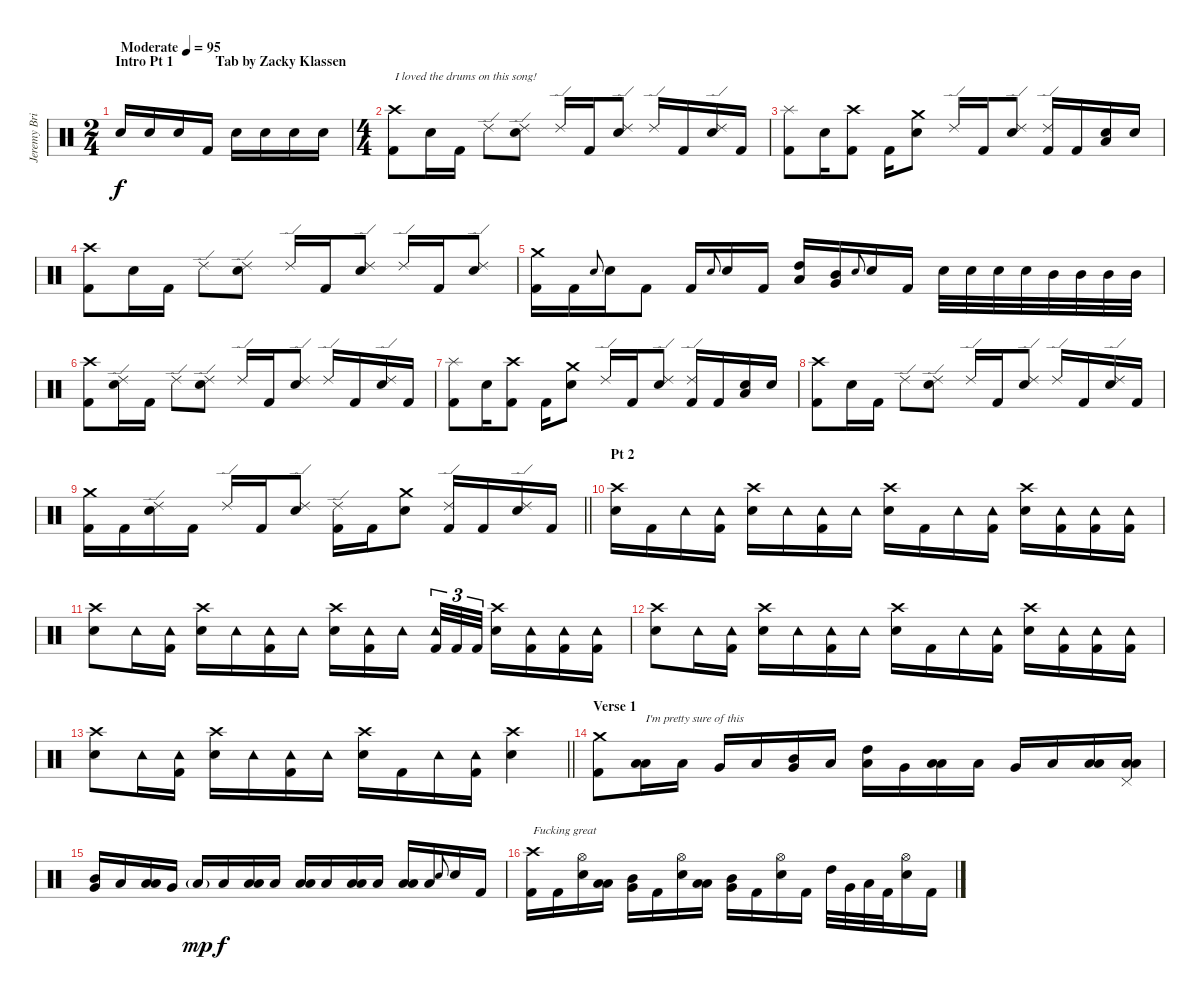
\track ("Jeremy Brian [Drums]" "Jeremy Bri") {instrument percussion}
\staff {score}
\articulation defaults
\ts (2 4)
\section ("" "Intro Pt 1            Tab by Zacky Klassen")
\tempo (95 "Moderate")
\clef neutral
\ks c "Electric Snare (hit)".16{dy f} "Electric Snare (hit)".16 "Electric Snare (hit)".16 "Kick (hit) 2".16 "Electric Snare (hit)".16 "Electric Snare (hit)".16 "Electric Snare (hit)".16 "Electric Snare (hit)".16
|
\ts (4 4)
("Crash high (hit)" "Kick (hit) 2").8{txt "I loved the drums on this song!"} "Electric Snare (hit)".16 "Kick (hit) 2".16 "Ride (edge) 2".8 ("Ride (edge) 2" "Electric Snare (hit)").8 "Ride (edge) 2".16 "Kick (hit) 2".16 ("Ride (edge) 2" "Electric Snare (hit)").8 "Ride (edge) 2".16 "Kick (hit) 2".16 ("Ride (edge) 2" "Electric Snare (hit)").16 "Kick (hit) 2".16 |
("Splash (hit)" "Kick (hit) 2").8 "Electric Snare (hit)".16 ("Crash high (hit)" "Kick (hit) 2").8 "Kick (hit) 2".16 ("Crash medium (hit)" "Electric Snare (hit)").8 "Ride (edge) 2".16 "Kick (hit) 2".16 ("Ride (edge) 2" "Electric Snare (hit)").8 ("Ride (edge) 2" "Kick (hit) 2").16 "Kick (hit) 2".16 ("Low Floor Tom (hit)" "Electric Snare (hit)").16 "Electric Snare (hit)".16 |
("Crash high (hit)" "Kick (hit) 2").8 "Electric Snare (hit)".16 "Kick (hit) 2".16 "Ride (edge) 2".8 ("Ride (edge) 2" "Electric Snare (hit)").8 "Ride (edge) 2".16 "Kick (hit) 2".16 ("Ride (edge) 2" "Electric Snare (hit)").8 "Ride (edge) 2".16 "Kick (hit) 2".16 ("Ride (edge) 2" "Electric Snare (hit)").8 |
("Crash medium (hit)" "Kick (hit) 2").16 "Kick (hit) 2".16 "Electric Snare (hit)".8{gr onbeat} "Electric Snare (hit)".16 "Kick (hit) 2".8 "Kick (hit) 2".16 "Electric Snare (hit)".8{gr onbeat} "Electric Snare (hit)".16 "Kick (hit) 2".16 ("Low Floor Tom (hit)" "High Tom (hit)").16 ("Very Low Tom (hit)" "Mid Tom (hit)").16 "Electric Snare (hit)".8{gr onbeat} "Electric Snare (hit)".16 "Kick (hit) 2".16 "Electric Snare (hit)".32 "Electric Snare (hit)".32 "Electric Snare (hit)".32 "Electric Snare (hit)".32 "Mid Tom (hit)".32 "Mid Tom (hit)".32 "Mid Tom (hit)".32 "Mid Tom (hit)".32 |
("Crash high (hit)" "Kick (hit) 2").8 ("Ride (edge) 2" "Electric Snare (hit)").16 "Kick (hit) 2".16 "Ride (edge) 2".8 ("Ride (edge) 2" "Electric Snare (hit)").8 "Ride (edge) 2".16 "Kick (hit) 2".16 ("Ride (edge) 2" "Electric Snare (hit)").8 "Ride (edge) 2".16 "Kick (hit) 2".16 ("Ride (edge) 2" "Electric Snare (hit)").16 "Kick (hit) 2".16 |
("Splash (hit)" "Kick (hit) 2").8 "Electric Snare (hit)".16 ("Crash high (hit)" "Kick (hit) 2").8 "Kick (hit) 2".16 ("Crash medium (hit)" "Electric Snare (hit)").8 "Ride (edge) 2".16 "Kick (hit) 2".16 ("Ride (edge) 2" "Electric Snare (hit)").8 ("Ride (edge) 2" "Kick (hit) 2").16 "Kick (hit) 2".16 ("Low Floor Tom (hit)" "Electric Snare (hit)").16 "Electric Snare (hit)".16 |
("Crash high (hit)" "Kick (hit) 2").8 "Electric Snare (hit)".16 "Kick (hit) 2".16 "Ride (edge) 2".8 ("Ride (edge) 2" "Electric Snare (hit)").8 "Ride (edge) 2".16 "Kick (hit) 2".16 ("Ride (edge) 2" "Electric Snare (hit)").8 "Ride (edge) 2".16 "Kick (hit) 2".16 ("Ride (edge) 2" "Electric Snare (hit)").16 "Kick (hit) 2".16 |
\barLineRight lightlight
("Crash medium (hit)" "Kick (hit) 2").16 "Kick (hit) 2".16 ("Ride (edge) 2" "Electric Snare (hit)").16 "Kick (hit) 2".16 "Ride (edge) 2".16 "Kick (hit) 2".16 ("Ride (edge) 2" "Electric Snare (hit)").8 ("Ride (edge) 2" "Kick (hit) 2").16 "Kick (hit) 2".16 ("Crash medium (hit)" "Electric Snare (hit)").8 ("Ride (edge) 2" "Kick (hit) 2").16 "Kick (hit) 2".16 ("Ride (edge) 2" "Electric Snare (hit)").16 "Kick (hit) 2".16 |
\section ("" "Pt 2")
("Crash high (hit)" "Electric Snare (hit)").16 "Kick (hit) 2".16 "Tambourine (hit)".16 ("Tambourine (hit)" "Kick (hit) 2").16 ("Crash high (hit)" "Electric Snare (hit)").16 "Tambourine (hit)".16 ("Tambourine (hit)" "Kick (hit) 2").16 "Tambourine (hit)".16 ("Crash high (hit)" "Electric Snare (hit)").16 "Kick (hit) 2".16 "Tambourine (hit)".16 ("Tambourine (hit)" "Kick (hit) 2").16 ("Crash high (hit)" "Electric Snare (hit)").16 ("Tambourine (hit)" "Kick (hit) 2").16 ("Tambourine (hit)" "Kick (hit) 2").16 ("Tambourine (hit)" "Kick (hit) 2").16 |
("Crash high (hit)" "Electric Snare (hit)").8 "Tambourine (hit)".16 ("Tambourine (hit)" "Kick (hit) 2").16 ("Crash high (hit)" "Electric Snare (hit)").16 "Tambourine (hit)".16 ("Tambourine (hit)" "Kick (hit) 2").16 "Tambourine (hit)".16 ("Crash high (hit)" "Electric Snare (hit)").16 ("Tambourine (hit)" "Kick (hit) 2").16 "Tambourine (hit)".16{beam splitsecondary} ("Tambourine (hit)" "Kick (hit) 2").32{tu (3 2)} "Kick (hit) 2".32{tu (3 2)} "Kick (hit) 2".32{tu (3 2)} ("Crash high (hit)" "Electric Snare (hit)").16 ("Tambourine (hit)" "Kick (hit) 2").16 ("Tambourine (hit)" "Kick (hit) 2").16 ("Tambourine (hit)" "Kick (hit) 2").16 |
("Crash high (hit)" "Electric Snare (hit)").8 "Tambourine (hit)".16 ("Tambourine (hit)" "Kick (hit) 2").16 ("Crash high (hit)" "Electric Snare (hit)").16 "Tambourine (hit)".16 ("Tambourine (hit)" "Kick (hit) 2").16 "Tambourine (hit)".16 ("Crash high (hit)" "Electric Snare (hit)").16 "Kick (hit) 2".16 "Tambourine (hit)".16 ("Tambourine (hit)" "Kick (hit) 2").16 ("Crash high (hit)" "Electric Snare (hit)").16 ("Tambourine (hit)" "Kick (hit) 2").16 ("Tambourine (hit)" "Kick (hit) 2").16 ("Tambourine (hit)" "Kick (hit) 2").16 |
\barLineRight lightlight
("Crash high (hit)" "Electric Snare (hit)").8 "Tambourine (hit)".16 ("Tambourine (hit)" "Kick (hit) 2").16 ("Crash high (hit)" "Electric Snare (hit)").16 "Tambourine (hit)".16 ("Tambourine (hit)" "Kick (hit) 2").16 "Tambourine (hit)".16 ("Crash high (hit)" "Electric Snare (hit)").16 "Kick (hit) 2".16 "Tambourine (hit)".16 ("Tambourine (hit)" "Kick (hit) 2").16 ("Crash high (hit)" "Electric Snare (hit)").4 |
\section ("" "Verse 1")
("Crash medium (hit)" "Kick (hit) 2").8 ("Low Floor Tom (hit)" "Low Tom (hit)").16{txt "I'm pretty sure of this"} "Low Floor Tom (hit)".16 "Very Low Tom (hit)".16 "Low Floor Tom (hit)".16 ("Very Low Tom (hit)" "Mid Tom (hit)").16 "Low Floor Tom (hit)".16 ("Low Tom (hit)" "High Tom (hit)").16 "Very Low Tom (hit)".16 ("Low Floor Tom (hit)" "Low Tom (hit)").16 "Low Floor Tom (hit)".16 "Very Low Tom (hit)".16 "Low Floor Tom (hit)".16 ("Low Floor Tom (hit)" "Low Tom (hit)").16 ("Low Floor Tom (hit)" "Pedal Hi-Hat (hit)" "Low Tom (hit)").16 |
("Very Low Tom (hit)" "Mid Tom (hit)").16 "Low Floor Tom (hit)".16 ("Low Floor Tom (hit)" "Low Tom (hit)").16 "Very Low Tom (hit)".16 "Low Floor Tom (hit)"{g}.16{dy mp} "Low Floor Tom (hit)".16{dy f} ("Low Floor Tom (hit)" "Low Tom (hit)").16 "Low Floor Tom (hit)".16 ("Low Floor Tom (hit)" "Low Tom (hit)").16 "Low Floor Tom (hit)".16 ("Low Floor Tom (hit)" "Low Tom (hit)").16 "Low Floor Tom (hit)".16 ("Low Floor Tom (hit)" "Low Tom (hit)").16 "Low Floor Tom (hit)".16 "Electric Snare (hit)".8{gr onbeat} "Electric Snare (hit)".16 "Kick (hit) 2".16 |
("Crash high (hit)" "Kick (hit) 2").16{txt "Fucking great"} "Kick (hit) 2".16 ("Hi-Hat (open)" "Electric Snare (hit)").16 ("Low Floor Tom (hit)" "Low Tom (hit)").16 ("Very Low Tom (hit)" "Mid Tom (hit)").16 "Kick (hit) 2".16 ("Hi-Hat (open)" "Electric Snare (hit)").16 ("Low Floor Tom (hit)" "Low Tom (hit)").16 ("Very Low Tom (hit)" "Mid Tom (hit)").16 "Kick (hit) 2".16 ("Hi-Hat (open)" "Electric Snare (hit)").16 "Kick (hit) 2".16 "High Tom (hit)".32{balance 16} "Very Low Tom (hit)".32{balance 0} "Low Tom (hit)".32{balance 8} "Kick (hit) 2".32 ("Hi-Hat (open)" "Electric Snare (hit)").16 "Kick (hit) 2".16
